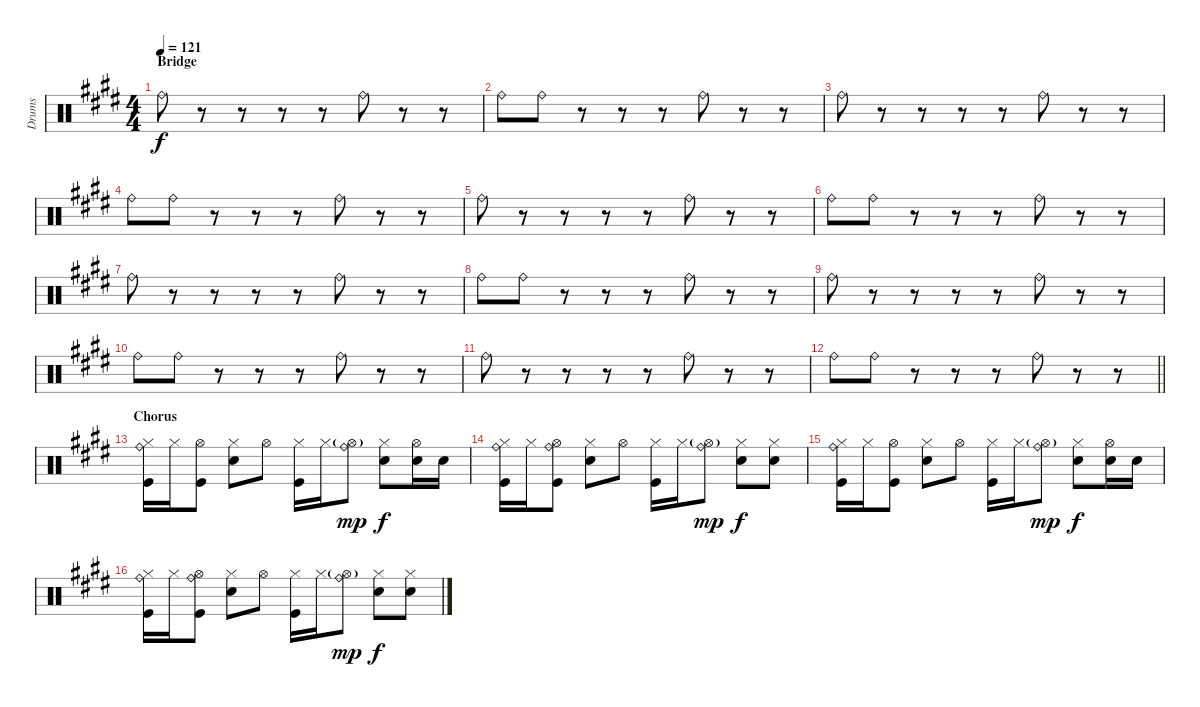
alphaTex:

\track ("Drums" "Drums") {instrument percussion}
\staff {score}
\articulation defaults
\ts (4 4)
\section ("" "Bridge")
\tempo 121
\clef neutral
\ks c#minor "Ride (bell)".8{dy f}
r.8 r.8 r.8 r.8 "Ride (bell)".8 r.8 r.8 |
"Ride (bell)".8 "Ride (bell)".8 r.8 r.8 r.8 "Ride (bell)".8 r.8 r.8 |
"Ride (bell)".8 r.8 r.8 r.8 r.8 "Ride (bell)".8 r.8 r.8 |
"Ride (bell)".8 "Ride (bell)".8 r.8 r.8 r.8 "Ride (bell)".8 r.8 r.8 |
"Ride (bell)".8 r.8 r.8 r.8 r.8 "Ride (bell)".8 r.8 r.8 |
"Ride (bell)".8 "Ride (bell)".8 r.8 r.8 r.8 "Ride (bell)".8 r.8 r.8 |
"Ride (bell)".8 r.8 r.8 r.8 r.8 "Ride (bell)".8 r.8 r.8 |
"Ride (bell)".8 "Ride (bell)".8 r.8 r.8 r.8 "Ride (bell)".8 r.8 r.8 |
"Ride (bell)".8 r.8 r.8 r.8 r.8 "Ride (bell)".8 r.8 r.8 |
"Ride (bell)".8 "Ride (bell)".8 r.8 r.8 r.8 "Ride (bell)".8 r.8 r.8 |
"Ride (bell)".8 r.8 r.8 r.8 r.8 "Ride (bell)".8 r.8 r.8 |
\barLineRight lightlight "Ride (bell)".8 "Ride (bell)".8
r.8 r.8 r.8 "Ride (bell)".8 r.8 r.8 |
\section ("" "Chorus")
("Ride (bell)" "Hi-Hat (closed)" "Kick (hit)").16 "Hi-Hat (closed)".16 ("Hi-Hat (open)" "Kick (hit)").8 ("Hi-Hat (closed)" "Electric Snare (hit)").8 "Hi-Hat (open)".8 ("Hi-Hat (closed)" "Kick (hit)").16 "Hi-Hat (closed)".16 ("Ride (bell)" "Hi-Hat (open)"{g}).8{dy mp} ("Hi-Hat (closed)" "Electric Snare (hit)").8{dy f} ("Hi-Hat (open)" "Electric Snare (hit)").16 "Electric Snare (hit)".16 |
("Ride (bell)" "Hi-Hat (closed)" "Kick (hit)").16 "Hi-Hat (closed)".16 ("Ride (bell)" "Hi-Hat (open)" "Kick (hit)").8 ("Hi-Hat (closed)" "Electric Snare (hit)").8 "Hi-Hat (open)".8 ("Hi-Hat (closed)" "Kick (hit)").16 "Hi-Hat (closed)".16 ("Ride (bell)" "Hi-Hat (open)"{g}).8{dy mp} ("Hi-Hat (closed)" "Electric Snare (hit)").8{dy f} ("Hi-Hat (closed)" "Electric Snare (hit)").8 |
("Ride (bell)" "Hi-Hat (closed)" "Kick (hit)").16 "Hi-Hat (closed)".16 ("Hi-Hat (open)" "Kick (hit)").8 ("Hi-Hat (closed)" "Electric Snare (hit)").8 "Hi-Hat (open)".8 ("Hi-Hat (closed)" "Kick (hit)").16 "Hi-Hat (closed)".16 ("Ride (bell)" "Hi-Hat (open)"{g}).8{dy mp} ("Hi-Hat (closed)" "Electric Snare (hit)").8{dy f} ("Hi-Hat (open)" "Electric Snare (hit)").16 "Electric Snare (hit)".16 |
("Ride (bell)" "Hi-Hat (closed)" "Kick (hit)").16 "Hi-Hat (closed)".16 ("Ride (bell)" "Hi-Hat (open)" "Kick (hit)").8 ("Hi-Hat (closed)" "Electric Snare (hit)").8 "Hi-Hat (open)".8 ("Hi-Hat (closed)" "Kick (hit)").16 "Hi-Hat (closed)".16 ("Ride (bell)" "Hi-Hat (open)"{g}).8{dy mp} ("Hi-Hat (closed)" "Electric Snare (hit)").8{dy f} ("Hi-Hat (closed)" "Electric Snare (hit)").8
